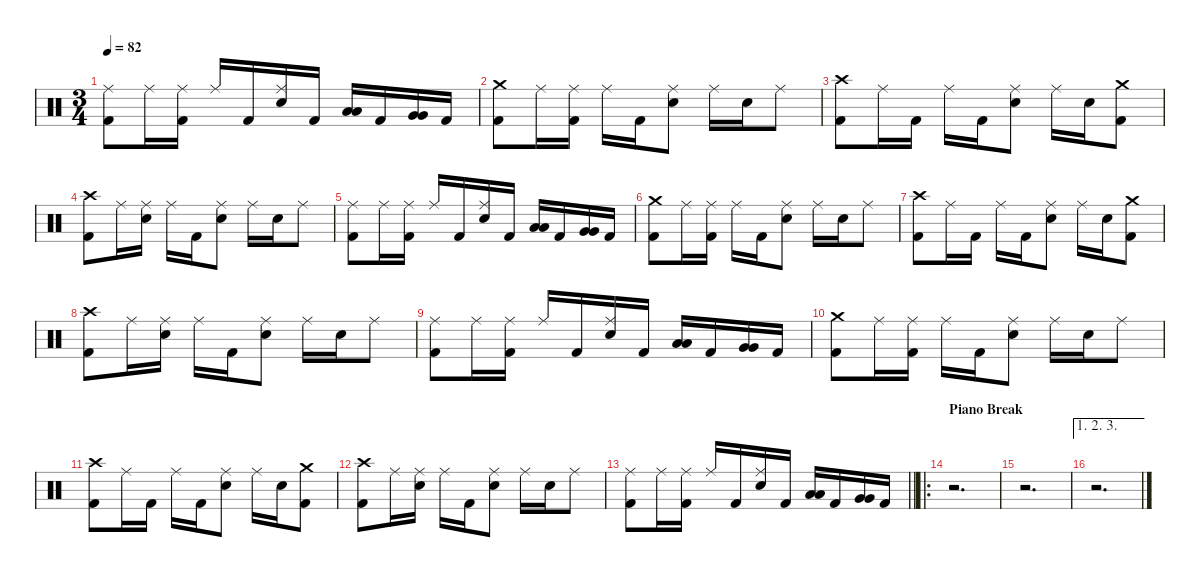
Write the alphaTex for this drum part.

\defaultSystemsLayout 4
\hideDynamics
\bracketExtendMode nobrackets
\singleTrackTrackNamePolicy hidden
\multiTrackTrackNamePolicy hidden
\firstSystemTrackNameMode fullname
\otherSystemsTrackNameOrientation horizontal
\track ("Drums" "drm.") {defaultSystemsLayout 4 instrument percussion}
\staff {score}
\articulation defaults
\ts (3 4)
\tempo 82
\clef neutral
\ks c
("Ride (middle)" "Kick (hit) 2").8{dy f beam Down} "Ride (middle)".16{beam Down} ("Ride (middle)" "Kick (hit) 2").16{beam Down} "Ride (middle)".16{beam Up} "Kick (hit) 2".16{beam Up} ("Ride (middle)" "Snare (hit) 2").16{beam Up} "Kick (hit) 2".16{beam Up} ("Low Tom (hit)" "Low Tom (hit)").16{beam Up} "Kick (hit) 2".16{beam Up} ("Very Low Tom (hit)" "Very Low Tom (hit)").16{beam Up} "Kick (hit) 2".16{beam Up} |
("Crash medium (hit)" "Kick (hit) 2").8{beam Down} "Ride (middle)".16{beam Down} ("Ride (middle)" "Kick (hit) 2").16{beam Down} "Ride (middle)".16{beam Down} "Kick (hit) 2".16{beam Down} ("Ride (middle)" "Snare (hit) 2").8{beam Down} "Ride (middle)".16{beam Down} "Snare (hit) 2".16{beam Down} "Ride (middle)".8{beam Down} |
("Crash high (hit)" "Kick (hit) 2").8{beam Down} "Ride (middle)".16{beam Down} "Kick (hit) 2".16{beam Down} "Ride (middle)".16{beam Down} "Kick (hit) 2".16{beam Down} ("Ride (middle)" "Snare (hit) 2").8{beam Down} "Ride (middle)".16{beam Down} "Snare (hit) 2".16{dy fff beam Down} ("Crash medium (hit)" "Kick (hit) 2").8{dy f beam Down} |
("Crash high (hit)" "Kick (hit) 2").8{beam Down} "Ride (middle)".16{beam Down} ("Ride (middle)" "Snare (hit) 2").16{beam Down} "Ride (middle)".16{beam Down} "Kick (hit) 2".16{beam Down} ("Ride (middle)" "Snare (hit) 2").8{beam Down} "Ride (middle)".16{beam Down} "Snare (hit) 2".16{beam Down} "Ride (middle)".8{beam Down} |
("Ride (middle)" "Kick (hit) 2").8{beam Down} "Ride (middle)".16{beam Down} ("Ride (middle)" "Kick (hit) 2").16{beam Down} "Ride (middle)".16{beam Up} "Kick (hit) 2".16{beam Up} ("Ride (middle)" "Snare (hit) 2").16{beam Up} "Kick (hit) 2".16{beam Up} ("Low Tom (hit)" "Low Tom (hit)").16{beam Up} "Kick (hit) 2".16{beam Up} ("Very Low Tom (hit)" "Very Low Tom (hit)").16{beam Up} "Kick (hit) 2".16{beam Up} |
("Crash medium (hit)" "Kick (hit) 2").8{beam Down} "Ride (middle)".16{beam Down} ("Ride (middle)" "Kick (hit) 2").16{beam Down} "Ride (middle)".16{beam Down} "Kick (hit) 2".16{beam Down} ("Ride (middle)" "Snare (hit) 2").8{beam Down} "Ride (middle)".16{beam Down} "Snare (hit) 2".16{beam Down} "Ride (middle)".8{beam Down} |
("Crash high (hit)" "Kick (hit) 2").8{beam Down} "Ride (middle)".16{beam Down} "Kick (hit) 2".16{beam Down} "Ride (middle)".16{beam Down} "Kick (hit) 2".16{beam Down} ("Ride (middle)" "Snare (hit) 2").8{beam Down} "Ride (middle)".16{beam Down} "Snare (hit) 2".16{dy fff beam Down} ("Crash medium (hit)" "Kick (hit) 2").8{dy f beam Down} |
("Crash high (hit)" "Kick (hit) 2").8{beam Down} "Ride (middle)".16{beam Down} ("Ride (middle)" "Snare (hit) 2").16{beam Down} "Ride (middle)".16{beam Down} "Kick (hit) 2".16{beam Down} ("Ride (middle)" "Snare (hit) 2").8{beam Down} "Ride (middle)".16{beam Down} "Snare (hit) 2".16{beam Down} "Ride (middle)".8{beam Down} |
("Ride (middle)" "Kick (hit) 2").8{beam Down} "Ride (middle)".16{beam Down} ("Ride (middle)" "Kick (hit) 2").16{beam Down} "Ride (middle)".16{beam Up} "Kick (hit) 2".16{beam Up} ("Ride (middle)" "Snare (hit) 2").16{beam Up} "Kick (hit) 2".16{beam Up} ("Low Tom (hit)" "Low Tom (hit)").16{beam Up} "Kick (hit) 2".16{beam Up} ("Very Low Tom (hit)" "Very Low Tom (hit)").16{beam Up} "Kick (hit) 2".16{beam Up} |
("Crash medium (hit)" "Kick (hit) 2").8{beam Down} "Ride (middle)".16{beam Down} ("Ride (middle)" "Kick (hit) 2").16{beam Down} "Ride (middle)".16{beam Down} "Kick (hit) 2".16{beam Down} ("Ride (middle)" "Snare (hit) 2").8{beam Down} "Ride (middle)".16{beam Down} "Snare (hit) 2".16{beam Down} "Ride (middle)".8{beam Down} |
("Crash high (hit)" "Kick (hit) 2").8{beam Down} "Ride (middle)".16{beam Down} "Kick (hit) 2".16{beam Down} "Ride (middle)".16{beam Down} "Kick (hit) 2".16{beam Down} ("Ride (middle)" "Snare (hit) 2").8{beam Down} "Ride (middle)".16{beam Down} "Snare (hit) 2".16{dy fff beam Down} ("Crash medium (hit)" "Kick (hit) 2").8{dy f beam Down} |
("Crash high (hit)" "Kick (hit) 2").8{beam Down} "Ride (middle)".16{beam Down} ("Ride (middle)" "Snare (hit) 2").16{beam Down} "Ride (middle)".16{beam Down} "Kick (hit) 2".16{beam Down} ("Ride (middle)" "Snare (hit) 2").8{beam Down} "Ride (middle)".16{beam Down} "Snare (hit) 2".16{beam Down} "Ride (middle)".8{beam Down} |
\barLineRight lightlight
("Ride (middle)" "Kick (hit) 2").8{beam Down} "Ride (middle)".16{beam Down} ("Ride (middle)" "Kick (hit) 2").16{beam Down} "Ride (middle)".16{beam Up} "Kick (hit) 2".16{beam Up} ("Ride (middle)" "Snare (hit) 2").16{beam Up} "Kick (hit) 2".16{beam Up} ("Low Tom (hit)" "Low Tom (hit)").16{beam Up} "Kick (hit) 2".16{beam Up} ("Very Low Tom (hit)" "Very Low Tom (hit)").16{beam Up} "Kick (hit) 2".16{beam Up} |
\ro
\section ("" "Piano Break")
r.2{d beam Down} |
r.2{d beam Down} |
\ae (1 2 3)
r.2{d beam Down}
